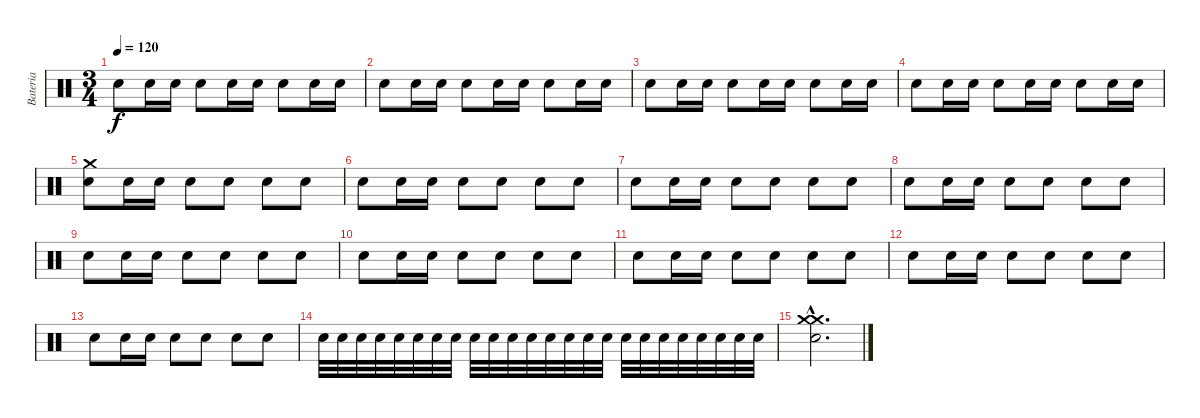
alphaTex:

\track ("Bateria" "Bateria") {instrument percussion}
\staff {score}
\articulation defaults
\ts (3 4)
\tempo 120
\clef neutral
\ks c "Electric Snare (hit)".8{dy f} "Electric Snare (hit)".16 "Electric Snare (hit)".16 "Electric Snare (hit)".8 "Electric Snare (hit)".16 "Electric Snare (hit)".16 "Electric Snare (hit)".8 "Electric Snare (hit)".16 "Electric Snare (hit)".16
|
"Electric Snare (hit)".8 "Electric Snare (hit)".16 "Electric Snare (hit)".16 "Electric Snare (hit)".8 "Electric Snare (hit)".16 "Electric Snare (hit)".16 "Electric Snare (hit)".8 "Electric Snare (hit)".16 "Electric Snare (hit)".16 |
"Electric Snare (hit)".8 "Electric Snare (hit)".16 "Electric Snare (hit)".16 "Electric Snare (hit)".8 "Electric Snare (hit)".16 "Electric Snare (hit)".16 "Electric Snare (hit)".8 "Electric Snare (hit)".16 "Electric Snare (hit)".16 |
"Electric Snare (hit)".8 "Electric Snare (hit)".16 "Electric Snare (hit)".16 "Electric Snare (hit)".8 "Electric Snare (hit)".16 "Electric Snare (hit)".16 "Electric Snare (hit)".8 "Electric Snare (hit)".16 "Electric Snare (hit)".16 |
("Electric Snare (hit)" "Crash medium (hit)").8 "Electric Snare (hit)".16 "Electric Snare (hit)".16 "Electric Snare (hit)".8 "Electric Snare (hit)".8 "Electric Snare (hit)".8 "Electric Snare (hit)".8 |
"Electric Snare (hit)".8 "Electric Snare (hit)".16 "Electric Snare (hit)".16 "Electric Snare (hit)".8 "Electric Snare (hit)".8 "Electric Snare (hit)".8 "Electric Snare (hit)".8 |
"Electric Snare (hit)".8 "Electric Snare (hit)".16 "Electric Snare (hit)".16 "Electric Snare (hit)".8 "Electric Snare (hit)".8 "Electric Snare (hit)".8 "Electric Snare (hit)".8 |
"Electric Snare (hit)".8 "Electric Snare (hit)".16 "Electric Snare (hit)".16 "Electric Snare (hit)".8 "Electric Snare (hit)".8 "Electric Snare (hit)".8 "Electric Snare (hit)".8 |
"Electric Snare (hit)".8 "Electric Snare (hit)".16 "Electric Snare (hit)".16 "Electric Snare (hit)".8 "Electric Snare (hit)".8 "Electric Snare (hit)".8 "Electric Snare (hit)".8 |
"Electric Snare (hit)".8 "Electric Snare (hit)".16 "Electric Snare (hit)".16 "Electric Snare (hit)".8 "Electric Snare (hit)".8 "Electric Snare (hit)".8 "Electric Snare (hit)".8 |
"Electric Snare (hit)".8 "Electric Snare (hit)".16 "Electric Snare (hit)".16 "Electric Snare (hit)".8 "Electric Snare (hit)".8 "Electric Snare (hit)".8 "Electric Snare (hit)".8 |
"Electric Snare (hit)".8 "Electric Snare (hit)".16 "Electric Snare (hit)".16 "Electric Snare (hit)".8 "Electric Snare (hit)".8 "Electric Snare (hit)".8 "Electric Snare (hit)".8 |
"Electric Snare (hit)".8 "Electric Snare (hit)".16 "Electric Snare (hit)".16 "Electric Snare (hit)".8 "Electric Snare (hit)".8 "Electric Snare (hit)".8 "Electric Snare (hit)".8 |
"Electric Snare (hit)".32 "Electric Snare (hit)".32 "Electric Snare (hit)".32 "Electric Snare (hit)".32 "Electric Snare (hit)".32 "Electric Snare (hit)".32 "Electric Snare (hit)".32 "Electric Snare (hit)".32 "Electric Snare (hit)".32 "Electric Snare (hit)".32 "Electric Snare (hit)".32 "Electric Snare (hit)".32 "Electric Snare (hit)".32 "Electric Snare (hit)".32 "Electric Snare (hit)".32 "Electric Snare (hit)".32 "Electric Snare (hit)".32 "Electric Snare (hit)".32 "Electric Snare (hit)".32 "Electric Snare (hit)".32 "Electric Snare (hit)".32 "Electric Snare (hit)".32 "Electric Snare (hit)".32 "Electric Snare (hit)".32 |
("Electric Snare (hit)"{hac} "Crash medium (hit)"{hac} "Crash medium (hit)"{hac}).2{d}
